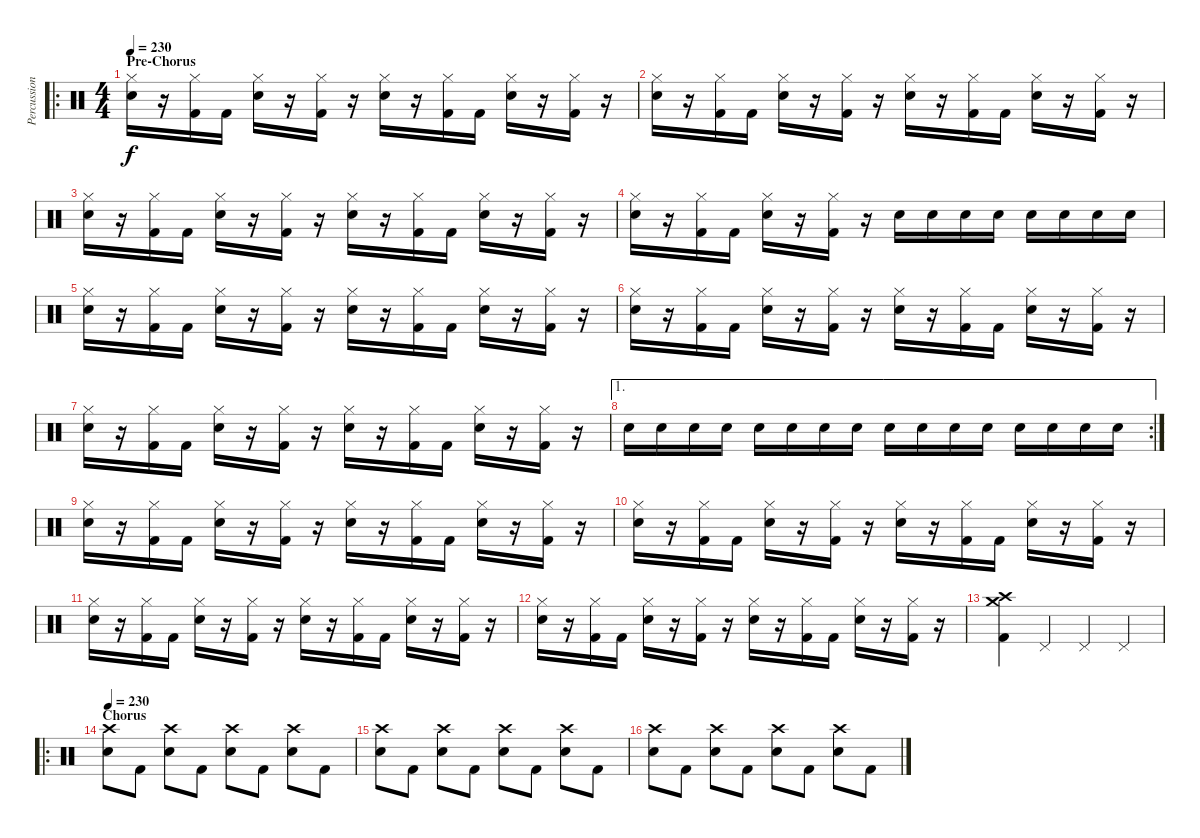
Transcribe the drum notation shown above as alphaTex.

\track ("Percussion" "Percussion") {instrument percussion}
\staff {score}
\articulation defaults
\ro
\ts (4 4)
\section ("" "Pre-Chorus")
\tempo 230
\clef neutral
\ks c
("Hi-Hat (closed)" "Electric Snare (hit)").16{dy f} r.16 ("Hi-Hat (closed)" "Kick (hit) 2").16 "Kick (hit) 2".16 ("Hi-Hat (closed)" "Electric Snare (hit)").16 r.16 ("Hi-Hat (closed)" "Kick (hit) 2").16 r.16 ("Hi-Hat (closed)" "Electric Snare (hit)").16 r.16 ("Hi-Hat (closed)" "Kick (hit) 2").16 "Kick (hit) 2".16 ("Hi-Hat (closed)" "Electric Snare (hit)").16 r.16 ("Hi-Hat (closed)" "Kick (hit) 2").16 r.16 |
("Hi-Hat (closed)" "Electric Snare (hit)").16 r.16 ("Hi-Hat (closed)" "Kick (hit) 2").16 "Kick (hit) 2".16 ("Hi-Hat (closed)" "Electric Snare (hit)").16 r.16 ("Hi-Hat (closed)" "Kick (hit) 2").16 r.16 ("Hi-Hat (closed)" "Electric Snare (hit)").16 r.16 ("Hi-Hat (closed)" "Kick (hit) 2").16 "Kick (hit) 2".16 ("Hi-Hat (closed)" "Electric Snare (hit)").16 r.16 ("Hi-Hat (closed)" "Kick (hit) 2").16 r.16 |
("Hi-Hat (closed)" "Electric Snare (hit)").16 r.16 ("Hi-Hat (closed)" "Kick (hit) 2").16 "Kick (hit) 2".16 ("Hi-Hat (closed)" "Electric Snare (hit)").16 r.16 ("Hi-Hat (closed)" "Kick (hit) 2").16 r.16 ("Hi-Hat (closed)" "Electric Snare (hit)").16 r.16 ("Hi-Hat (closed)" "Kick (hit) 2").16 "Kick (hit) 2".16 ("Hi-Hat (closed)" "Electric Snare (hit)").16 r.16 ("Hi-Hat (closed)" "Kick (hit) 2").16 r.16 |
("Hi-Hat (closed)" "Electric Snare (hit)").16 r.16 ("Hi-Hat (closed)" "Kick (hit) 2").16 "Kick (hit) 2".16 ("Hi-Hat (closed)" "Electric Snare (hit)").16 r.16 ("Hi-Hat (closed)" "Kick (hit) 2").16 r.16 "Electric Snare (hit)".16 "Electric Snare (hit)".16 "Electric Snare (hit)".16 "Electric Snare (hit)".16 "Electric Snare (hit)".16 "Electric Snare (hit)".16 "Electric Snare (hit)".16 "Electric Snare (hit)".16 |
("Hi-Hat (closed)" "Electric Snare (hit)").16 r.16 ("Hi-Hat (closed)" "Kick (hit) 2").16 "Kick (hit) 2".16 ("Hi-Hat (closed)" "Electric Snare (hit)").16 r.16 ("Hi-Hat (closed)" "Kick (hit) 2").16 r.16 ("Hi-Hat (closed)" "Electric Snare (hit)").16 r.16 ("Hi-Hat (closed)" "Kick (hit) 2").16 "Kick (hit) 2".16 ("Hi-Hat (closed)" "Electric Snare (hit)").16 r.16 ("Hi-Hat (closed)" "Kick (hit) 2").16 r.16 |
("Hi-Hat (closed)" "Electric Snare (hit)").16 r.16 ("Hi-Hat (closed)" "Kick (hit) 2").16 "Kick (hit) 2".16 ("Hi-Hat (closed)" "Electric Snare (hit)").16 r.16 ("Hi-Hat (closed)" "Kick (hit) 2").16 r.16 ("Hi-Hat (closed)" "Electric Snare (hit)").16 r.16 ("Hi-Hat (closed)" "Kick (hit) 2").16 "Kick (hit) 2".16 ("Hi-Hat (closed)" "Electric Snare (hit)").16 r.16 ("Hi-Hat (closed)" "Kick (hit) 2").16 r.16 |
("Hi-Hat (closed)" "Electric Snare (hit)").16 r.16 ("Hi-Hat (closed)" "Kick (hit) 2").16 "Kick (hit) 2".16 ("Hi-Hat (closed)" "Electric Snare (hit)").16 r.16 ("Hi-Hat (closed)" "Kick (hit) 2").16 r.16 ("Hi-Hat (closed)" "Electric Snare (hit)").16 r.16 ("Hi-Hat (closed)" "Kick (hit) 2").16 "Kick (hit) 2".16 ("Hi-Hat (closed)" "Electric Snare (hit)").16 r.16 ("Hi-Hat (closed)" "Kick (hit) 2").16 r.16 |
\ae 1
\rc 2 "Electric Snare (hit)".16 "Electric Snare (hit)".16 "Electric Snare (hit)".16 "Electric Snare (hit)".16 "Electric Snare (hit)".16 "Electric Snare (hit)".16 "Electric Snare (hit)".16 "Electric Snare (hit)".16 "Electric Snare (hit)".16 "Electric Snare (hit)".16 "Electric Snare (hit)".16 "Electric Snare (hit)".16 "Electric Snare (hit)".16 "Electric Snare (hit)".16 "Electric Snare (hit)".16 "Electric Snare (hit)".16
|
("Hi-Hat (closed)" "Electric Snare (hit)").16 r.16 ("Hi-Hat (closed)" "Kick (hit) 2").16 "Kick (hit) 2".16 ("Hi-Hat (closed)" "Electric Snare (hit)").16 r.16 ("Hi-Hat (closed)" "Kick (hit) 2").16 r.16 ("Hi-Hat (closed)" "Electric Snare (hit)").16 r.16 ("Hi-Hat (closed)" "Kick (hit) 2").16 "Kick (hit) 2".16 ("Hi-Hat (closed)" "Electric Snare (hit)").16 r.16 ("Hi-Hat (closed)" "Kick (hit) 2").16 r.16 |
("Hi-Hat (closed)" "Electric Snare (hit)").16 r.16 ("Hi-Hat (closed)" "Kick (hit) 2").16 "Kick (hit) 2".16 ("Hi-Hat (closed)" "Electric Snare (hit)").16 r.16 ("Hi-Hat (closed)" "Kick (hit) 2").16 r.16 ("Hi-Hat (closed)" "Electric Snare (hit)").16 r.16 ("Hi-Hat (closed)" "Kick (hit) 2").16 "Kick (hit) 2".16 ("Hi-Hat (closed)" "Electric Snare (hit)").16 r.16 ("Hi-Hat (closed)" "Kick (hit) 2").16 r.16 |
("Hi-Hat (closed)" "Electric Snare (hit)").16 r.16 ("Hi-Hat (closed)" "Kick (hit) 2").16 "Kick (hit) 2".16 ("Hi-Hat (closed)" "Electric Snare (hit)").16 r.16 ("Hi-Hat (closed)" "Kick (hit) 2").16 r.16 ("Hi-Hat (closed)" "Electric Snare (hit)").16 r.16 ("Hi-Hat (closed)" "Kick (hit) 2").16 "Kick (hit) 2".16 ("Hi-Hat (closed)" "Electric Snare (hit)").16 r.16 ("Hi-Hat (closed)" "Kick (hit) 2").16 r.16 |
("Hi-Hat (closed)" "Electric Snare (hit)").16 r.16 ("Hi-Hat (closed)" "Kick (hit) 2").16 "Kick (hit) 2".16 ("Hi-Hat (closed)" "Electric Snare (hit)").16 r.16 ("Hi-Hat (closed)" "Kick (hit) 2").16 r.16 ("Hi-Hat (closed)" "Electric Snare (hit)").16 r.16 ("Hi-Hat (closed)" "Kick (hit) 2").16 "Kick (hit) 2".16 ("Hi-Hat (closed)" "Electric Snare (hit)").16 r.16 ("Hi-Hat (closed)" "Kick (hit) 2").16 r.16 |
("Crash high (hit)" "Crash medium (hit)" "Kick (hit) 2").4 "Pedal Hi-Hat (hit)".4 "Pedal Hi-Hat (hit)".4 "Pedal Hi-Hat (hit)".4 |
\ro
\section ("" "Chorus")
\tempo 240
\tempo 230
("Crash high (hit)" "Electric Snare (hit)").8 "Kick (hit) 2".8 ("Crash high (hit)" "Electric Snare (hit)").8 "Kick (hit) 2".8 ("Crash high (hit)" "Electric Snare (hit)").8 "Kick (hit) 2".8 ("Crash high (hit)" "Electric Snare (hit)").8 "Kick (hit) 2".8 |
("Crash high (hit)" "Electric Snare (hit)").8 "Kick (hit) 2".8 ("Crash high (hit)" "Electric Snare (hit)").8 "Kick (hit) 2".8 ("Crash high (hit)" "Electric Snare (hit)").8 "Kick (hit) 2".8 ("Crash high (hit)" "Electric Snare (hit)").8 "Kick (hit) 2".8 |
("Crash high (hit)" "Electric Snare (hit)").8 "Kick (hit) 2".8 ("Crash high (hit)" "Electric Snare (hit)").8 "Kick (hit) 2".8 ("Crash high (hit)" "Electric Snare (hit)").8 "Kick (hit) 2".8 ("Crash high (hit)" "Electric Snare (hit)").8 "Kick (hit) 2".8
